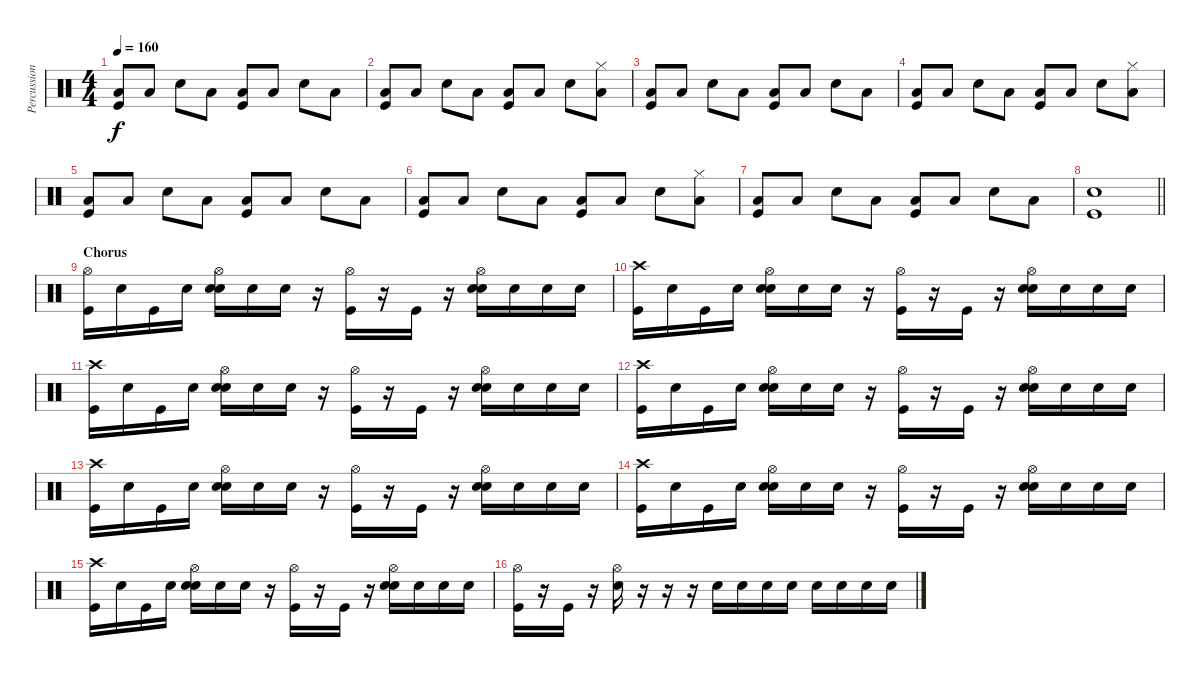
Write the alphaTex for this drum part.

\track ("Percussion" "Percussion") {instrument percussion}
\staff {score}
\articulation defaults
\ts (4 4)
\tempo 160
\clef neutral
\ks c
("Kick (hit)" "Low Floor Tom (hit)").8{dy f} "Low Floor Tom (hit)".8 "Electric Snare (hit)".8 "Low Floor Tom (hit)".8 ("Kick (hit)" "Low Floor Tom (hit)").8 "Low Floor Tom (hit)".8 "Electric Snare (hit)".8 "Low Floor Tom (hit)".8 |
("Kick (hit)" "Low Floor Tom (hit)").8 "Low Floor Tom (hit)".8 "Electric Snare (hit)".8 "Low Floor Tom (hit)".8 ("Kick (hit)" "Low Floor Tom (hit)").8 "Low Floor Tom (hit)".8 "Electric Snare (hit)".8 ("Low Floor Tom (hit)" "Hi-Hat (closed)").8 |
("Kick (hit)" "Low Floor Tom (hit)").8 "Low Floor Tom (hit)".8 "Electric Snare (hit)".8 "Low Floor Tom (hit)".8 ("Kick (hit)" "Low Floor Tom (hit)").8 "Low Floor Tom (hit)".8 "Electric Snare (hit)".8 "Low Floor Tom (hit)".8 |
("Kick (hit)" "Low Floor Tom (hit)").8 "Low Floor Tom (hit)".8 "Electric Snare (hit)".8 "Low Floor Tom (hit)".8 ("Kick (hit)" "Low Floor Tom (hit)").8 "Low Floor Tom (hit)".8 "Electric Snare (hit)".8 ("Low Floor Tom (hit)" "Hi-Hat (closed)").8 |
("Kick (hit)" "Low Floor Tom (hit)").8 "Low Floor Tom (hit)".8 "Electric Snare (hit)".8 "Low Floor Tom (hit)".8 ("Kick (hit)" "Low Floor Tom (hit)").8 "Low Floor Tom (hit)".8 "Electric Snare (hit)".8 "Low Floor Tom (hit)".8 |
("Kick (hit)" "Low Floor Tom (hit)").8 "Low Floor Tom (hit)".8 "Electric Snare (hit)".8 "Low Floor Tom (hit)".8 ("Kick (hit)" "Low Floor Tom (hit)").8 "Low Floor Tom (hit)".8 "Electric Snare (hit)".8 ("Low Floor Tom (hit)" "Hi-Hat (closed)").8 |
("Kick (hit)" "Low Floor Tom (hit)").8 "Low Floor Tom (hit)".8 "Electric Snare (hit)".8 "Low Floor Tom (hit)".8 ("Kick (hit)" "Low Floor Tom (hit)").8 "Low Floor Tom (hit)".8 "Electric Snare (hit)".8 "Low Floor Tom (hit)".8 |
\barLineRight lightlight
("Kick (hit)" "Electric Snare (hit)").1 |
\section ("" "Chorus")
("Kick (hit)" "Hi-Hat (open)").16 "Snare (hit)".16 "Kick (hit)".16 "Snare (hit)".16 ("Snare (hit)" "Electric Snare (hit)" "Hi-Hat (open)").16 "Snare (hit)".16 "Snare (hit)".16 r.16 ("Kick (hit)" "Hi-Hat (open)").16 r.16 "Kick (hit)".16 r.16 ("Snare (hit)" "Electric Snare (hit)" "Hi-Hat (open)").16 "Snare (hit)".16 "Snare (hit)".16 "Snare (hit)".16 |
("Kick (hit)" "Crash high (hit)").16 "Snare (hit)".16 "Kick (hit)".16 "Snare (hit)".16 ("Snare (hit)" "Electric Snare (hit)" "Hi-Hat (open)").16 "Snare (hit)".16 "Snare (hit)".16 r.16 ("Kick (hit)" "Hi-Hat (open)").16 r.16 "Kick (hit)".16 r.16 ("Snare (hit)" "Electric Snare (hit)" "Hi-Hat (open)").16 "Snare (hit)".16 "Snare (hit)".16 "Snare (hit)".16 |
("Kick (hit)" "Crash high (hit)").16 "Snare (hit)".16 "Kick (hit)".16 "Snare (hit)".16 ("Snare (hit)" "Electric Snare (hit)" "Hi-Hat (open)").16 "Snare (hit)".16 "Snare (hit)".16 r.16 ("Kick (hit)" "Hi-Hat (open)").16 r.16 "Kick (hit)".16 r.16 ("Snare (hit)" "Electric Snare (hit)" "Hi-Hat (open)").16 "Snare (hit)".16 "Snare (hit)".16 "Snare (hit)".16 |
("Kick (hit)" "Crash high (hit)").16 "Snare (hit)".16 "Kick (hit)".16 "Snare (hit)".16 ("Snare (hit)" "Electric Snare (hit)" "Hi-Hat (open)").16 "Snare (hit)".16 "Snare (hit)".16 r.16 ("Kick (hit)" "Hi-Hat (open)").16 r.16 "Kick (hit)".16 r.16 ("Snare (hit)" "Electric Snare (hit)" "Hi-Hat (open)").16 "Snare (hit)".16 "Snare (hit)".16 "Snare (hit)".16 |
("Kick (hit)" "Crash high (hit)").16 "Snare (hit)".16 "Kick (hit)".16 "Snare (hit)".16 ("Snare (hit)" "Electric Snare (hit)" "Hi-Hat (open)").16 "Snare (hit)".16 "Snare (hit)".16 r.16 ("Kick (hit)" "Hi-Hat (open)").16 r.16 "Kick (hit)".16 r.16 ("Snare (hit)" "Electric Snare (hit)" "Hi-Hat (open)").16 "Snare (hit)".16 "Snare (hit)".16 "Snare (hit)".16 |
("Kick (hit)" "Crash high (hit)").16 "Snare (hit)".16 "Kick (hit)".16 "Snare (hit)".16 ("Snare (hit)" "Electric Snare (hit)" "Hi-Hat (open)").16 "Snare (hit)".16 "Snare (hit)".16 r.16 ("Kick (hit)" "Hi-Hat (open)").16 r.16 "Kick (hit)".16 r.16 ("Snare (hit)" "Electric Snare (hit)" "Hi-Hat (open)").16 "Snare (hit)".16 "Snare (hit)".16 "Snare (hit)".16 |
("Kick (hit)" "Crash high (hit)").16 "Snare (hit)".16 "Kick (hit)".16 "Snare (hit)".16 ("Snare (hit)" "Electric Snare (hit)" "Hi-Hat (open)").16 "Snare (hit)".16 "Snare (hit)".16 r.16 ("Kick (hit)" "Hi-Hat (open)").16 r.16 "Kick (hit)".16 r.16 ("Snare (hit)" "Electric Snare (hit)" "Hi-Hat (open)").16 "Snare (hit)".16 "Snare (hit)".16 "Snare (hit)".16 |
("Kick (hit)" "Hi-Hat (open)").16 r.16 "Kick (hit)".16 r.16 ("Electric Snare (hit)" "Hi-Hat (open)").16 r.16 r.16 r.16 "Electric Snare (hit)".16 "Electric Snare (hit)".16 "Electric Snare (hit)".16 "Electric Snare (hit)".16 "Electric Snare (hit)".16 "Electric Snare (hit)".16 "Electric Snare (hit)".16 "Electric Snare (hit)".16
